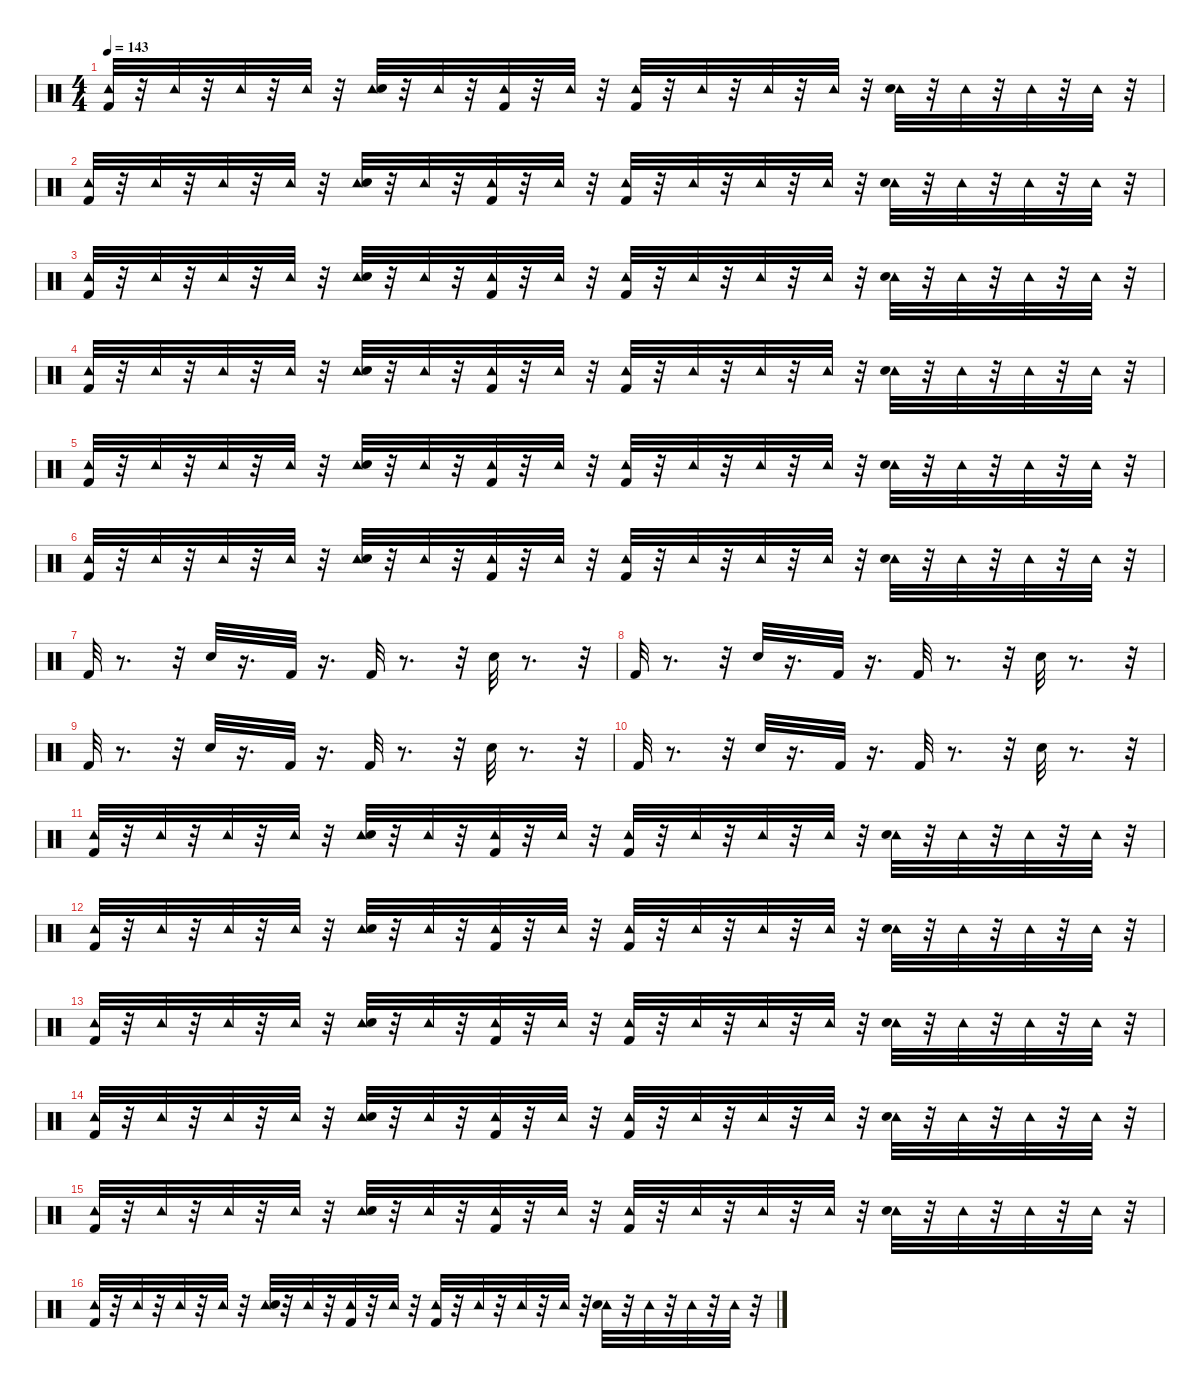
\defaultSystemsLayout 4
\hideDynamics
\bracketExtendMode nobrackets
\singleTrackTrackNamePolicy hidden
\multiTrackTrackNamePolicy hidden
\firstSystemTrackNameMode fullname
\firstSystemTrackNameOrientation horizontal
\otherSystemsTrackNameOrientation horizontal
\track ("Drums" "drm.") {instrument percussion}
\staff {score}
\articulation defaults
\ts (4 4)
\tempo 143
\clef neutral
\ks c
("Kick (hit) 2" "Tambourine (hit)").32{dy ff beam Up} r.32{beam Up} "Tambourine (hit)".32{dy mf beam Up} r.32{beam Up} "Tambourine (hit)".32{beam Up} r.32{beam Up} "Tambourine (hit)".32{beam Up} r.32{beam Up} ("Tambourine (hit)" "Snare (hit) 2").32{dy fff beam Up} r.32{beam Up} "Tambourine (hit)".32{dy mf beam Up} r.32{beam Up} ("Kick (hit) 2" "Tambourine (hit)").32{dy fff beam Up} r.32{beam Up} "Tambourine (hit)".32{dy mf beam Up} r.32{beam Up} ("Kick (hit) 2" "Tambourine (hit)").32{dy ff beam Up} r.32{beam Up} "Tambourine (hit)".32{dy mf beam Up} r.32{beam Up} "Tambourine (hit)".32{dy mp beam Up} r.32{beam Up} "Tambourine (hit)".32{dy mf beam Up} r.32{beam Up} ("Tambourine (hit)" "Snare (hit) 2").32{dy fff beam Down} r.32{beam Down} "Tambourine (hit)".32{dy mf beam Down} r.32{beam Down} "Tambourine (hit)".32{beam Down} r.32{beam Down} "Tambourine (hit)".32{beam Down} r.32{beam Down} |
("Kick (hit) 2" "Tambourine (hit)").32{dy ff beam Up} r.32{beam Up} "Tambourine (hit)".32{dy mf beam Up} r.32{beam Up} "Tambourine (hit)".32{beam Up} r.32{beam Up} "Tambourine (hit)".32{beam Up} r.32{beam Up} ("Tambourine (hit)" "Snare (hit) 2").32{dy fff beam Up} r.32{beam Up} "Tambourine (hit)".32{dy mf beam Up} r.32{beam Up} ("Kick (hit) 2" "Tambourine (hit)").32{dy fff beam Up} r.32{beam Up} "Tambourine (hit)".32{dy mf beam Up} r.32{beam Up} ("Kick (hit) 2" "Tambourine (hit)").32{dy ff beam Up} r.32{beam Up} "Tambourine (hit)".32{dy mf beam Up} r.32{beam Up} "Tambourine (hit)".32{dy mp beam Up} r.32{beam Up} "Tambourine (hit)".32{dy mf beam Up} r.32{beam Up} ("Tambourine (hit)" "Snare (hit) 2").32{dy fff beam Down} r.32{beam Down} "Tambourine (hit)".32{dy mf beam Down} r.32{beam Down} "Tambourine (hit)".32{beam Down} r.32{beam Down} "Tambourine (hit)".32{beam Down} r.32{beam Down} |
("Kick (hit) 2" "Tambourine (hit)").32{dy ff beam Up} r.32{beam Up} "Tambourine (hit)".32{dy mf beam Up} r.32{beam Up} "Tambourine (hit)".32{beam Up} r.32{beam Up} "Tambourine (hit)".32{beam Up} r.32{beam Up} ("Tambourine (hit)" "Snare (hit) 2").32{dy fff beam Up} r.32{beam Up} "Tambourine (hit)".32{dy mf beam Up} r.32{beam Up} ("Kick (hit) 2" "Tambourine (hit)").32{dy fff beam Up} r.32{beam Up} "Tambourine (hit)".32{dy mf beam Up} r.32{beam Up} ("Kick (hit) 2" "Tambourine (hit)").32{dy ff beam Up} r.32{beam Up} "Tambourine (hit)".32{dy mf beam Up} r.32{beam Up} "Tambourine (hit)".32{dy mp beam Up} r.32{beam Up} "Tambourine (hit)".32{dy mf beam Up} r.32{beam Up} ("Tambourine (hit)" "Snare (hit) 2").32{dy fff beam Down} r.32{beam Down} "Tambourine (hit)".32{dy mf beam Down} r.32{beam Down} "Tambourine (hit)".32{beam Down} r.32{beam Down} "Tambourine (hit)".32{beam Down} r.32{beam Down} |
("Kick (hit) 2" "Tambourine (hit)").32{dy ff beam Up} r.32{beam Up} "Tambourine (hit)".32{dy mf beam Up} r.32{beam Up} "Tambourine (hit)".32{beam Up} r.32{beam Up} "Tambourine (hit)".32{beam Up} r.32{beam Up} ("Tambourine (hit)" "Snare (hit) 2").32{dy fff beam Up} r.32{beam Up} "Tambourine (hit)".32{dy mf beam Up} r.32{beam Up} ("Kick (hit) 2" "Tambourine (hit)").32{dy fff beam Up} r.32{beam Up} "Tambourine (hit)".32{dy mf beam Up} r.32{beam Up} ("Kick (hit) 2" "Tambourine (hit)").32{dy ff beam Up} r.32{beam Up} "Tambourine (hit)".32{dy mf beam Up} r.32{beam Up} "Tambourine (hit)".32{dy mp beam Up} r.32{beam Up} "Tambourine (hit)".32{dy mf beam Up} r.32{beam Up} ("Tambourine (hit)" "Snare (hit) 2").32{dy fff beam Down} r.32{beam Down} "Tambourine (hit)".32{dy mf beam Down} r.32{beam Down} "Tambourine (hit)".32{beam Down} r.32{beam Down} "Tambourine (hit)".32{beam Down} r.32{beam Down} |
("Kick (hit) 2" "Tambourine (hit)").32{dy ff beam Up} r.32{beam Up} "Tambourine (hit)".32{dy mf beam Up} r.32{beam Up} "Tambourine (hit)".32{beam Up} r.32{beam Up} "Tambourine (hit)".32{beam Up} r.32{beam Up} ("Tambourine (hit)" "Snare (hit) 2").32{dy fff beam Up} r.32{beam Up} "Tambourine (hit)".32{dy mf beam Up} r.32{beam Up} ("Kick (hit) 2" "Tambourine (hit)").32{dy fff beam Up} r.32{beam Up} "Tambourine (hit)".32{dy mf beam Up} r.32{beam Up} ("Kick (hit) 2" "Tambourine (hit)").32{dy ff beam Up} r.32{beam Up} "Tambourine (hit)".32{dy mf beam Up} r.32{beam Up} "Tambourine (hit)".32{dy mp beam Up} r.32{beam Up} "Tambourine (hit)".32{dy mf beam Up} r.32{beam Up} ("Tambourine (hit)" "Snare (hit) 2").32{dy fff beam Down} r.32{beam Down} "Tambourine (hit)".32{dy mf beam Down} r.32{beam Down} "Tambourine (hit)".32{beam Down} r.32{beam Down} "Tambourine (hit)".32{beam Down} r.32{beam Down} |
("Kick (hit) 2" "Tambourine (hit)").32{dy ff beam Up} r.32{beam Up} "Tambourine (hit)".32{dy mf beam Up} r.32{beam Up} "Tambourine (hit)".32{beam Up} r.32{beam Up} "Tambourine (hit)".32{beam Up} r.32{beam Up} ("Tambourine (hit)" "Snare (hit) 2").32{dy fff beam Up} r.32{beam Up} "Tambourine (hit)".32{dy mf beam Up} r.32{beam Up} ("Kick (hit) 2" "Tambourine (hit)").32{dy fff beam Up} r.32{beam Up} "Tambourine (hit)".32{dy mf beam Up} r.32{beam Up} ("Kick (hit) 2" "Tambourine (hit)").32{dy ff beam Up} r.32{beam Up} "Tambourine (hit)".32{dy mf beam Up} r.32{beam Up} "Tambourine (hit)".32{dy mp beam Up} r.32{beam Up} "Tambourine (hit)".32{dy mf beam Up} r.32{beam Up} ("Tambourine (hit)" "Snare (hit) 2").32{dy fff beam Down} r.32{beam Down} "Tambourine (hit)".32{dy mf beam Down} r.32{beam Down} "Tambourine (hit)".32{beam Down} r.32{beam Down} "Tambourine (hit)".32{beam Down} r.32{beam Down} |
"Kick (hit) 2".32{dy ff beam Up} r.8{d beam Up} r.32{beam Up} "Snare (hit) 2".32{beam Up} r.16{d beam Up} "Kick (hit) 2".32{dy fff beam Up} r.16{d beam Up} "Kick (hit) 2".32{dy ff beam Up} r.8{d beam Up} r.32{beam Up} "Snare (hit) 2".32{beam Down} r.8{d beam Down} r.32{beam Down} |
"Kick (hit) 2".32{beam Up} r.8{d beam Up} r.32{beam Up} "Snare (hit) 2".32{beam Up} r.16{d beam Up} "Kick (hit) 2".32{dy fff beam Up} r.16{d beam Up} "Kick (hit) 2".32{dy ff beam Up} r.8{d beam Up} r.32{beam Up} "Snare (hit) 2".32{beam Down} r.8{d beam Down} r.32{beam Down} |
"Kick (hit) 2".32{beam Up} r.8{d beam Up} r.32{beam Up} "Snare (hit) 2".32{beam Up} r.16{d beam Up} "Kick (hit) 2".32{dy fff beam Up} r.16{d beam Up} "Kick (hit) 2".32{dy ff beam Up} r.8{d beam Up} r.32{beam Up} "Snare (hit) 2".32{beam Down} r.8{d beam Down} r.32{beam Down} |
"Kick (hit) 2".32{beam Up} r.8{d beam Up} r.32{beam Up} "Snare (hit) 2".32{beam Up} r.16{d beam Up} "Kick (hit) 2".32{dy fff beam Up} r.16{d beam Up} "Kick (hit) 2".32{dy ff beam Up} r.8{d beam Up} r.32{beam Up} "Snare (hit) 2".32{beam Down} r.8{d beam Down} r.32{beam Down} |
("Kick (hit) 2" "Tambourine (hit)").32{beam Up} r.32{beam Up} "Tambourine (hit)".32{dy mf beam Up} r.32{beam Up} "Tambourine (hit)".32{beam Up} r.32{beam Up} "Tambourine (hit)".32{beam Up} r.32{beam Up} ("Tambourine (hit)" "Snare (hit) 2").32{dy fff beam Up} r.32{beam Up} "Tambourine (hit)".32{dy mf beam Up} r.32{beam Up} ("Kick (hit) 2" "Tambourine (hit)").32{dy fff beam Up} r.32{beam Up} "Tambourine (hit)".32{dy mf beam Up} r.32{beam Up} ("Kick (hit) 2" "Tambourine (hit)").32{dy ff beam Up} r.32{beam Up} "Tambourine (hit)".32{dy mf beam Up} r.32{beam Up} "Tambourine (hit)".32{dy mp beam Up} r.32{beam Up} "Tambourine (hit)".32{dy mf beam Up} r.32{beam Up} ("Tambourine (hit)" "Snare (hit) 2").32{dy fff beam Down} r.32{beam Down} "Tambourine (hit)".32{dy mf beam Down} r.32{beam Down} "Tambourine (hit)".32{beam Down} r.32{beam Down} "Tambourine (hit)".32{beam Down} r.32{beam Down} |
("Kick (hit) 2" "Tambourine (hit)").32{dy ff beam Up} r.32{beam Up} "Tambourine (hit)".32{dy mf beam Up} r.32{beam Up} "Tambourine (hit)".32{beam Up} r.32{beam Up} "Tambourine (hit)".32{beam Up} r.32{beam Up} ("Tambourine (hit)" "Snare (hit) 2").32{dy fff beam Up} r.32{beam Up} "Tambourine (hit)".32{dy mf beam Up} r.32{beam Up} ("Kick (hit) 2" "Tambourine (hit)").32{dy fff beam Up} r.32{beam Up} "Tambourine (hit)".32{dy mf beam Up} r.32{beam Up} ("Kick (hit) 2" "Tambourine (hit)").32{dy ff beam Up} r.32{beam Up} "Tambourine (hit)".32{dy mf beam Up} r.32{beam Up} "Tambourine (hit)".32{dy mp beam Up} r.32{beam Up} "Tambourine (hit)".32{dy mf beam Up} r.32{beam Up} ("Tambourine (hit)" "Snare (hit) 2").32{dy fff beam Down} r.32{beam Down} "Tambourine (hit)".32{dy mf beam Down} r.32{beam Down} "Tambourine (hit)".32{beam Down} r.32{beam Down} "Tambourine (hit)".32{beam Down} r.32{beam Down} |
("Kick (hit) 2" "Tambourine (hit)").32{dy ff beam Up} r.32{beam Up} "Tambourine (hit)".32{dy mf beam Up} r.32{beam Up} "Tambourine (hit)".32{beam Up} r.32{beam Up} "Tambourine (hit)".32{beam Up} r.32{beam Up} ("Tambourine (hit)" "Snare (hit) 2").32{dy fff beam Up} r.32{beam Up} "Tambourine (hit)".32{dy mf beam Up} r.32{beam Up} ("Kick (hit) 2" "Tambourine (hit)").32{dy fff beam Up} r.32{beam Up} "Tambourine (hit)".32{dy mf beam Up} r.32{beam Up} ("Kick (hit) 2" "Tambourine (hit)").32{dy ff beam Up} r.32{beam Up} "Tambourine (hit)".32{dy mf beam Up} r.32{beam Up} "Tambourine (hit)".32{dy mp beam Up} r.32{beam Up} "Tambourine (hit)".32{dy mf beam Up} r.32{beam Up} ("Tambourine (hit)" "Snare (hit) 2").32{dy fff beam Down} r.32{beam Down} "Tambourine (hit)".32{dy mf beam Down} r.32{beam Down} "Tambourine (hit)".32{beam Down} r.32{beam Down} "Tambourine (hit)".32{beam Down} r.32{beam Down} |
("Kick (hit) 2" "Tambourine (hit)").32{dy ff beam Up} r.32{beam Up} "Tambourine (hit)".32{dy mf beam Up} r.32{beam Up} "Tambourine (hit)".32{beam Up} r.32{beam Up} "Tambourine (hit)".32{beam Up} r.32{beam Up} ("Tambourine (hit)" "Snare (hit) 2").32{dy fff beam Up} r.32{beam Up} "Tambourine (hit)".32{dy mf beam Up} r.32{beam Up} ("Kick (hit) 2" "Tambourine (hit)").32{dy fff beam Up} r.32{beam Up} "Tambourine (hit)".32{dy mf beam Up} r.32{beam Up} ("Kick (hit) 2" "Tambourine (hit)").32{dy ff beam Up} r.32{beam Up} "Tambourine (hit)".32{dy mf beam Up} r.32{beam Up} "Tambourine (hit)".32{dy mp beam Up} r.32{beam Up} "Tambourine (hit)".32{dy mf beam Up} r.32{beam Up} ("Tambourine (hit)" "Snare (hit) 2").32{dy fff beam Down} r.32{beam Down} "Tambourine (hit)".32{dy mf beam Down} r.32{beam Down} "Tambourine (hit)".32{beam Down} r.32{beam Down} "Tambourine (hit)".32{beam Down} r.32{beam Down} |
("Kick (hit) 2" "Tambourine (hit)").32{dy ff beam Up} r.32{beam Up} "Tambourine (hit)".32{dy mf beam Up} r.32{beam Up} "Tambourine (hit)".32{beam Up} r.32{beam Up} "Tambourine (hit)".32{beam Up} r.32{beam Up} ("Tambourine (hit)" "Snare (hit) 2").32{dy fff beam Up} r.32{beam Up} "Tambourine (hit)".32{dy mf beam Up} r.32{beam Up} ("Kick (hit) 2" "Tambourine (hit)").32{dy fff beam Up} r.32{beam Up} "Tambourine (hit)".32{dy mf beam Up} r.32{beam Up} ("Kick (hit) 2" "Tambourine (hit)").32{dy ff beam Up} r.32{beam Up} "Tambourine (hit)".32{dy mf beam Up} r.32{beam Up} "Tambourine (hit)".32{dy mp beam Up} r.32{beam Up} "Tambourine (hit)".32{dy mf beam Up} r.32{beam Up} ("Tambourine (hit)" "Snare (hit) 2").32{dy fff beam Down} r.32{beam Down} "Tambourine (hit)".32{dy mf beam Down} r.32{beam Down} "Tambourine (hit)".32{beam Down} r.32{beam Down} "Tambourine (hit)".32{beam Down} r.32{beam Down} |
("Kick (hit) 2" "Tambourine (hit)").32{dy ff beam Up} r.32{beam Up} "Tambourine (hit)".32{dy mf beam Up} r.32{beam Up} "Tambourine (hit)".32{beam Up} r.32{beam Up} "Tambourine (hit)".32{beam Up} r.32{beam Up} ("Tambourine (hit)" "Snare (hit) 2").32{dy fff beam Up} r.32{beam Up} "Tambourine (hit)".32{dy mf beam Up} r.32{beam Up} ("Kick (hit) 2" "Tambourine (hit)").32{dy fff beam Up} r.32{beam Up} "Tambourine (hit)".32{dy mf beam Up} r.32{beam Up} ("Kick (hit) 2" "Tambourine (hit)").32{dy ff beam Up} r.32{beam Up} "Tambourine (hit)".32{dy mf beam Up} r.32{beam Up} "Tambourine (hit)".32{dy mp beam Up} r.32{beam Up} "Tambourine (hit)".32{dy mf beam Up} r.32{beam Up} ("Tambourine (hit)" "Snare (hit) 2").32{dy fff beam Down} r.32{beam Down} "Tambourine (hit)".32{dy mf beam Down} r.32{beam Down} "Tambourine (hit)".32{beam Down} r.32{beam Down} "Tambourine (hit)".32{beam Down} r.32{beam Down}
